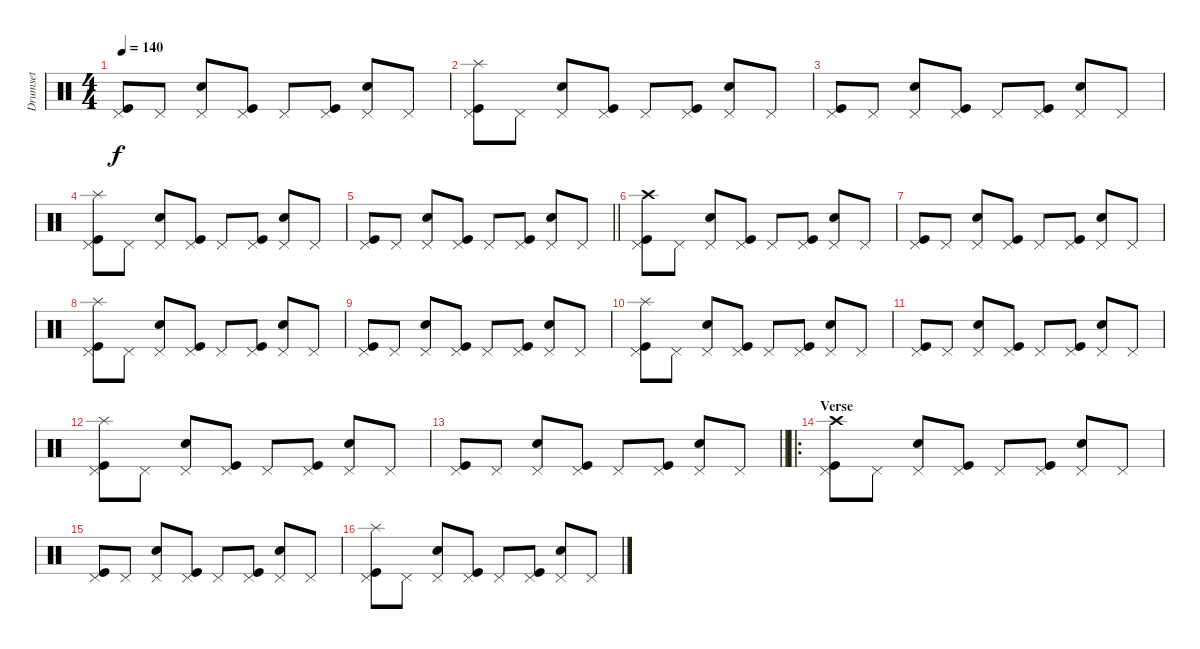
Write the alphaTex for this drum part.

\track ("Drumset" "Drumset") {instrument percussion}
\staff {score}
\articulation defaults
\ts (4 4)
\tempo 140
\clef neutral
\ks c
("Pedal Hi-Hat (hit)" "Kick (hit)").8{dy f} "Pedal Hi-Hat (hit)".8 ("Pedal Hi-Hat (hit)" "Snare (hit) 2").8 ("Pedal Hi-Hat (hit)" "Kick (hit)").8 "Pedal Hi-Hat (hit)".8 ("Pedal Hi-Hat (hit)" "Kick (hit)").8 ("Pedal Hi-Hat (hit)" "Snare (hit) 2").8 "Pedal Hi-Hat (hit)".8 |
("Pedal Hi-Hat (hit)" "Kick (hit)" "Splash (hit)").8 "Pedal Hi-Hat (hit)".8 ("Pedal Hi-Hat (hit)" "Snare (hit) 2").8 ("Pedal Hi-Hat (hit)" "Kick (hit)").8 "Pedal Hi-Hat (hit)".8 ("Pedal Hi-Hat (hit)" "Kick (hit)").8 ("Pedal Hi-Hat (hit)" "Snare (hit) 2").8 "Pedal Hi-Hat (hit)".8 |
("Pedal Hi-Hat (hit)" "Kick (hit)").8 "Pedal Hi-Hat (hit)".8 ("Pedal Hi-Hat (hit)" "Snare (hit) 2").8 ("Pedal Hi-Hat (hit)" "Kick (hit)").8 "Pedal Hi-Hat (hit)".8 ("Pedal Hi-Hat (hit)" "Kick (hit)").8 ("Pedal Hi-Hat (hit)" "Snare (hit) 2").8 "Pedal Hi-Hat (hit)".8 |
("Pedal Hi-Hat (hit)" "Kick (hit)" "Splash (hit)").8 "Pedal Hi-Hat (hit)".8 ("Pedal Hi-Hat (hit)" "Snare (hit) 2").8 ("Pedal Hi-Hat (hit)" "Kick (hit)").8 "Pedal Hi-Hat (hit)".8 ("Pedal Hi-Hat (hit)" "Kick (hit)").8 ("Pedal Hi-Hat (hit)" "Snare (hit) 2").8 "Pedal Hi-Hat (hit)".8 |
\barLineRight lightlight
("Pedal Hi-Hat (hit)" "Kick (hit)").8 "Pedal Hi-Hat (hit)".8 ("Pedal Hi-Hat (hit)" "Snare (hit) 2").8 ("Pedal Hi-Hat (hit)" "Kick (hit)").8 "Pedal Hi-Hat (hit)".8 ("Pedal Hi-Hat (hit)" "Kick (hit)").8 ("Pedal Hi-Hat (hit)" "Snare (hit) 2").8 "Pedal Hi-Hat (hit)".8 |
("Pedal Hi-Hat (hit)" "Kick (hit)" "Crash high (hit)").8 "Pedal Hi-Hat (hit)".8 ("Pedal Hi-Hat (hit)" "Snare (hit) 2").8 ("Pedal Hi-Hat (hit)" "Kick (hit)").8 "Pedal Hi-Hat (hit)".8 ("Pedal Hi-Hat (hit)" "Kick (hit)").8 ("Pedal Hi-Hat (hit)" "Snare (hit) 2").8 "Pedal Hi-Hat (hit)".8 |
("Pedal Hi-Hat (hit)" "Kick (hit)").8 "Pedal Hi-Hat (hit)".8 ("Pedal Hi-Hat (hit)" "Snare (hit) 2").8 ("Pedal Hi-Hat (hit)" "Kick (hit)").8 "Pedal Hi-Hat (hit)".8 ("Pedal Hi-Hat (hit)" "Kick (hit)").8 ("Pedal Hi-Hat (hit)" "Snare (hit) 2").8 "Pedal Hi-Hat (hit)".8 |
("Pedal Hi-Hat (hit)" "Kick (hit)" "Splash (hit)").8 "Pedal Hi-Hat (hit)".8 ("Pedal Hi-Hat (hit)" "Snare (hit) 2").8 ("Pedal Hi-Hat (hit)" "Kick (hit)").8 "Pedal Hi-Hat (hit)".8 ("Pedal Hi-Hat (hit)" "Kick (hit)").8 ("Pedal Hi-Hat (hit)" "Snare (hit) 2").8 "Pedal Hi-Hat (hit)".8 |
("Pedal Hi-Hat (hit)" "Kick (hit)").8 "Pedal Hi-Hat (hit)".8 ("Pedal Hi-Hat (hit)" "Snare (hit) 2").8 ("Pedal Hi-Hat (hit)" "Kick (hit)").8 "Pedal Hi-Hat (hit)".8 ("Pedal Hi-Hat (hit)" "Kick (hit)").8 ("Pedal Hi-Hat (hit)" "Snare (hit) 2").8 "Pedal Hi-Hat (hit)".8 |
("Pedal Hi-Hat (hit)" "Kick (hit)" "Splash (hit)").8 "Pedal Hi-Hat (hit)".8 ("Pedal Hi-Hat (hit)" "Snare (hit) 2").8 ("Pedal Hi-Hat (hit)" "Kick (hit)").8 "Pedal Hi-Hat (hit)".8 ("Pedal Hi-Hat (hit)" "Kick (hit)").8 ("Pedal Hi-Hat (hit)" "Snare (hit) 2").8 "Pedal Hi-Hat (hit)".8 |
("Pedal Hi-Hat (hit)" "Kick (hit)").8 "Pedal Hi-Hat (hit)".8 ("Pedal Hi-Hat (hit)" "Snare (hit) 2").8 ("Pedal Hi-Hat (hit)" "Kick (hit)").8 "Pedal Hi-Hat (hit)".8 ("Pedal Hi-Hat (hit)" "Kick (hit)").8 ("Pedal Hi-Hat (hit)" "Snare (hit) 2").8 "Pedal Hi-Hat (hit)".8 |
("Pedal Hi-Hat (hit)" "Kick (hit)" "Splash (hit)").8 "Pedal Hi-Hat (hit)".8 ("Pedal Hi-Hat (hit)" "Snare (hit) 2").8 ("Pedal Hi-Hat (hit)" "Kick (hit)").8 "Pedal Hi-Hat (hit)".8 ("Pedal Hi-Hat (hit)" "Kick (hit)").8 ("Pedal Hi-Hat (hit)" "Snare (hit) 2").8 "Pedal Hi-Hat (hit)".8 |
\barLineRight lightlight
("Pedal Hi-Hat (hit)" "Kick (hit)").8 "Pedal Hi-Hat (hit)".8 ("Pedal Hi-Hat (hit)" "Snare (hit) 2").8 ("Pedal Hi-Hat (hit)" "Kick (hit)").8 "Pedal Hi-Hat (hit)".8 ("Pedal Hi-Hat (hit)" "Kick (hit)").8 ("Pedal Hi-Hat (hit)" "Snare (hit) 2").8 "Pedal Hi-Hat (hit)".8 |
\ro
\section ("" "Verse")
("Pedal Hi-Hat (hit)" "Kick (hit)" "Crash high (hit)").8 "Pedal Hi-Hat (hit)".8 ("Pedal Hi-Hat (hit)" "Snare (hit) 2").8 ("Pedal Hi-Hat (hit)" "Kick (hit)").8 "Pedal Hi-Hat (hit)".8 ("Pedal Hi-Hat (hit)" "Kick (hit)").8 ("Pedal Hi-Hat (hit)" "Snare (hit) 2").8 "Pedal Hi-Hat (hit)".8 |
("Pedal Hi-Hat (hit)" "Kick (hit)").8 "Pedal Hi-Hat (hit)".8 ("Pedal Hi-Hat (hit)" "Snare (hit) 2").8 ("Pedal Hi-Hat (hit)" "Kick (hit)").8 "Pedal Hi-Hat (hit)".8 ("Pedal Hi-Hat (hit)" "Kick (hit)").8 ("Pedal Hi-Hat (hit)" "Snare (hit) 2").8 "Pedal Hi-Hat (hit)".8 |
("Pedal Hi-Hat (hit)" "Kick (hit)" "Splash (hit)").8 "Pedal Hi-Hat (hit)".8 ("Pedal Hi-Hat (hit)" "Snare (hit) 2").8 ("Pedal Hi-Hat (hit)" "Kick (hit)").8 "Pedal Hi-Hat (hit)".8 ("Pedal Hi-Hat (hit)" "Kick (hit)").8 ("Pedal Hi-Hat (hit)" "Snare (hit) 2").8 "Pedal Hi-Hat (hit)".8
